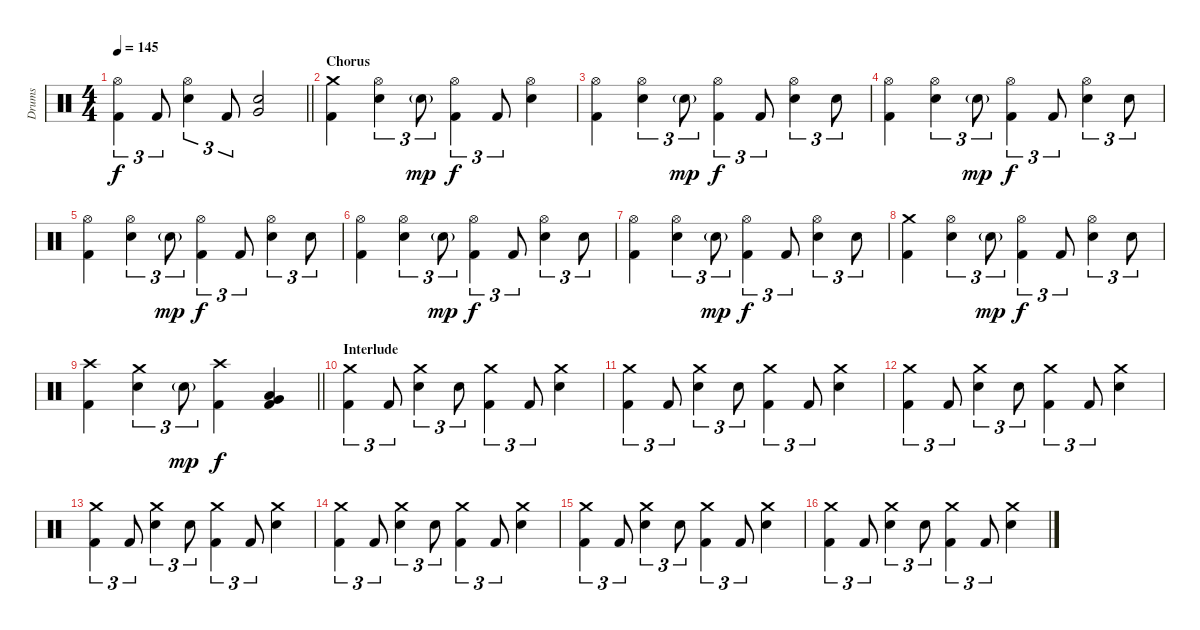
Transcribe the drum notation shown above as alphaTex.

\track ("Drums" "Drums") {instrument percussion}
\staff {score}
\articulation defaults
\ts (4 4)
\tempo 145
\clef neutral
\barLineRight lightlight
\ks c
("Hi-Hat (open)" "Kick (hit) 2").4{tu (3 2) dy f} "Kick (hit) 2".8{tu (3 2)} ("Hi-Hat (open)" "Electric Snare (hit)").4{tu (3 2)} "Kick (hit) 2".8{tu (3 2)} ("Very Low Tom (hit)" "Electric Snare (hit)").2 |
\section ("" "Chorus")
("Crash medium (hit)" "Kick (hit) 2").4 ("Hi-Hat (open)" "Electric Snare (hit)").4{tu (3 2)} "Electric Snare (hit)"{g}.8{tu (3 2) dy mp} ("Hi-Hat (open)" "Kick (hit) 2").4{tu (3 2) dy f} "Kick (hit) 2".8{tu (3 2)} ("Hi-Hat (open)" "Electric Snare (hit)").4 |
("Hi-Hat (open)" "Kick (hit) 2").4 ("Hi-Hat (open)" "Electric Snare (hit)").4{tu (3 2)} "Electric Snare (hit)"{g}.8{tu (3 2) dy mp} ("Hi-Hat (open)" "Kick (hit) 2").4{tu (3 2) dy f} "Kick (hit) 2".8{tu (3 2)} ("Hi-Hat (open)" "Electric Snare (hit)").4{tu (3 2)} "Electric Snare (hit)".8{tu (3 2)} |
("Hi-Hat (open)" "Kick (hit) 2").4 ("Hi-Hat (open)" "Electric Snare (hit)").4{tu (3 2)} "Electric Snare (hit)"{g}.8{tu (3 2) dy mp} ("Hi-Hat (open)" "Kick (hit) 2").4{tu (3 2) dy f} "Kick (hit) 2".8{tu (3 2)} ("Hi-Hat (open)" "Electric Snare (hit)").4{tu (3 2)} "Electric Snare (hit)".8{tu (3 2)} |
("Hi-Hat (open)" "Kick (hit) 2").4 ("Hi-Hat (open)" "Electric Snare (hit)").4{tu (3 2)} "Electric Snare (hit)"{g}.8{tu (3 2) dy mp} ("Hi-Hat (open)" "Kick (hit) 2").4{tu (3 2) dy f} "Kick (hit) 2".8{tu (3 2)} ("Hi-Hat (open)" "Electric Snare (hit)").4{tu (3 2)} "Electric Snare (hit)".8{tu (3 2)} |
("Hi-Hat (open)" "Kick (hit) 2").4 ("Hi-Hat (open)" "Electric Snare (hit)").4{tu (3 2)} "Electric Snare (hit)"{g}.8{tu (3 2) dy mp} ("Hi-Hat (open)" "Kick (hit) 2").4{tu (3 2) dy f} "Kick (hit) 2".8{tu (3 2)} ("Hi-Hat (open)" "Electric Snare (hit)").4{tu (3 2)} "Electric Snare (hit)".8{tu (3 2)} |
("Hi-Hat (open)" "Kick (hit) 2").4 ("Hi-Hat (open)" "Electric Snare (hit)").4{tu (3 2)} "Electric Snare (hit)"{g}.8{tu (3 2) dy mp} ("Hi-Hat (open)" "Kick (hit) 2").4{tu (3 2) dy f} "Kick (hit) 2".8{tu (3 2)} ("Hi-Hat (open)" "Electric Snare (hit)").4{tu (3 2)} "Electric Snare (hit)".8{tu (3 2)} |
("Crash medium (hit)" "Kick (hit) 2").4 ("Hi-Hat (open)" "Electric Snare (hit)").4{tu (3 2)} "Electric Snare (hit)"{g}.8{tu (3 2) dy mp} ("Hi-Hat (open)" "Kick (hit) 2").4{tu (3 2) dy f} "Kick (hit) 2".8{tu (3 2)} ("Hi-Hat (open)" "Electric Snare (hit)").4{tu (3 2)} "Electric Snare (hit)".8{tu (3 2)} |
\barLineRight lightlight
("Crash high (hit)" "Kick (hit) 2").4 ("Crash medium (hit)" "Electric Snare (hit)").4{tu (3 2)} "Electric Snare (hit)"{g}.8{tu (3 2) dy mp} ("Crash high (hit)" "Kick (hit) 2").4{dy f} ("Very Low Tom (hit)" "Low Tom (hit)" "Kick (hit) 2").4 |
\section ("" "Interlude")
("Crash medium (hit)" "Kick (hit) 2").4{tu (3 2)} "Kick (hit) 2".8{tu (3 2)} ("Crash medium (hit)" "Electric Snare (hit)").4{tu (3 2)} "Electric Snare (hit)".8{tu (3 2)} ("Crash medium (hit)" "Kick (hit) 2").4{tu (3 2)} "Kick (hit) 2".8{tu (3 2)} ("Crash medium (hit)" "Electric Snare (hit)").4 |
("Crash medium (hit)" "Kick (hit) 2").4{tu (3 2)} "Kick (hit) 2".8{tu (3 2)} ("Crash medium (hit)" "Electric Snare (hit)").4{tu (3 2)} "Electric Snare (hit)".8{tu (3 2)} ("Crash medium (hit)" "Kick (hit) 2").4{tu (3 2)} "Kick (hit) 2".8{tu (3 2)} ("Crash medium (hit)" "Electric Snare (hit)").4 |
("Crash medium (hit)" "Kick (hit) 2").4{tu (3 2)} "Kick (hit) 2".8{tu (3 2)} ("Crash medium (hit)" "Electric Snare (hit)").4{tu (3 2)} "Electric Snare (hit)".8{tu (3 2)} ("Crash medium (hit)" "Kick (hit) 2").4{tu (3 2)} "Kick (hit) 2".8{tu (3 2)} ("Crash medium (hit)" "Electric Snare (hit)").4 |
("Crash medium (hit)" "Kick (hit) 2").4{tu (3 2)} "Kick (hit) 2".8{tu (3 2)} ("Crash medium (hit)" "Electric Snare (hit)").4{tu (3 2)} "Electric Snare (hit)".8{tu (3 2)} ("Crash medium (hit)" "Kick (hit) 2").4{tu (3 2)} "Kick (hit) 2".8{tu (3 2)} ("Crash medium (hit)" "Electric Snare (hit)").4 |
("Crash medium (hit)" "Kick (hit) 2").4{tu (3 2)} "Kick (hit) 2".8{tu (3 2)} ("Crash medium (hit)" "Electric Snare (hit)").4{tu (3 2)} "Electric Snare (hit)".8{tu (3 2)} ("Crash medium (hit)" "Kick (hit) 2").4{tu (3 2)} "Kick (hit) 2".8{tu (3 2)} ("Crash medium (hit)" "Electric Snare (hit)").4 |
("Crash medium (hit)" "Kick (hit) 2").4{tu (3 2)} "Kick (hit) 2".8{tu (3 2)} ("Crash medium (hit)" "Electric Snare (hit)").4{tu (3 2)} "Electric Snare (hit)".8{tu (3 2)} ("Crash medium (hit)" "Kick (hit) 2").4{tu (3 2)} "Kick (hit) 2".8{tu (3 2)} ("Crash medium (hit)" "Electric Snare (hit)").4 |
("Crash medium (hit)" "Kick (hit) 2").4{tu (3 2)} "Kick (hit) 2".8{tu (3 2)} ("Crash medium (hit)" "Electric Snare (hit)").4{tu (3 2)} "Electric Snare (hit)".8{tu (3 2)} ("Crash medium (hit)" "Kick (hit) 2").4{tu (3 2)} "Kick (hit) 2".8{tu (3 2)} ("Crash medium (hit)" "Electric Snare (hit)").4
